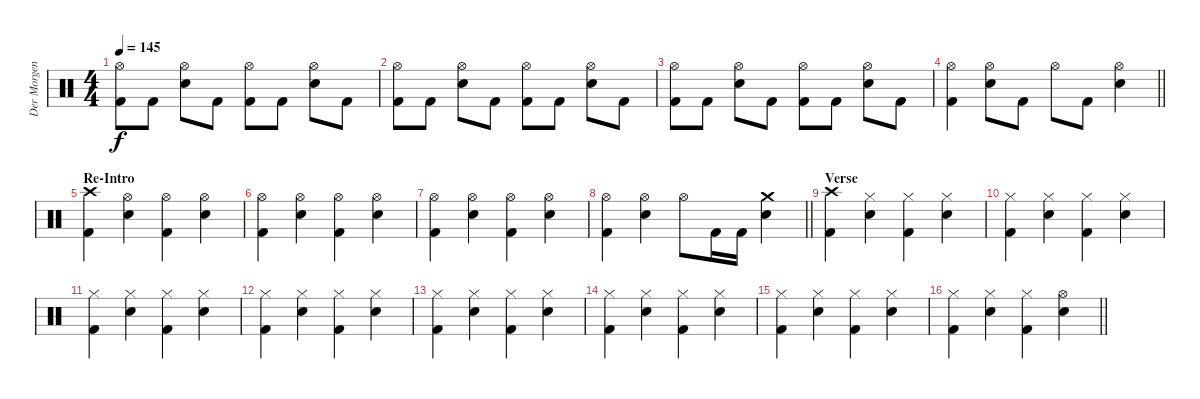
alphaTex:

\track ("Der Morgenstern" "Der Morgen") {instrument percussion}
\staff {score}
\articulation defaults
\ts (4 4)
\tempo 145
\clef neutral
\ks c
("Hi-Hat (open)" "Kick (hit) 2").8{dy f} "Kick (hit) 2".8 ("Hi-Hat (open)" "Electric Snare (hit)").8 "Kick (hit) 2".8 ("Hi-Hat (open)" "Kick (hit) 2").8 "Kick (hit) 2".8 ("Hi-Hat (open)" "Electric Snare (hit)").8 "Kick (hit) 2".8 |
("Hi-Hat (open)" "Kick (hit) 2").8 "Kick (hit) 2".8 ("Hi-Hat (open)" "Electric Snare (hit)").8 "Kick (hit) 2".8 ("Hi-Hat (open)" "Kick (hit) 2").8 "Kick (hit) 2".8 ("Hi-Hat (open)" "Electric Snare (hit)").8 "Kick (hit) 2".8 |
("Hi-Hat (open)" "Kick (hit) 2").8 "Kick (hit) 2".8 ("Hi-Hat (open)" "Electric Snare (hit)").8 "Kick (hit) 2".8 ("Hi-Hat (open)" "Kick (hit) 2").8 "Kick (hit) 2".8 ("Hi-Hat (open)" "Electric Snare (hit)").8 "Kick (hit) 2".8 |
\barLineRight lightlight
("Hi-Hat (open)" "Kick (hit) 2").4 ("Hi-Hat (open)" "Electric Snare (hit)").8 "Kick (hit) 2".8 "Hi-Hat (open)".8 "Kick (hit) 2".8 ("Hi-Hat (open)" "Electric Snare (hit)").4 |
\section ("" "Re-Intro")
("Crash high (hit)" "Kick (hit) 2").4 ("Hi-Hat (open)" "Electric Snare (hit)").4 ("Hi-Hat (open)" "Kick (hit) 2").4 ("Hi-Hat (open)" "Electric Snare (hit)").4 |
("Hi-Hat (open)" "Kick (hit) 2").4 ("Hi-Hat (open)" "Electric Snare (hit)").4 ("Hi-Hat (open)" "Kick (hit) 2").4 ("Hi-Hat (open)" "Electric Snare (hit)").4 |
("Hi-Hat (open)" "Kick (hit) 2").4 ("Hi-Hat (open)" "Electric Snare (hit)").4 ("Hi-Hat (open)" "Kick (hit) 2").4 ("Hi-Hat (open)" "Electric Snare (hit)").4 |
\barLineRight lightlight
("Hi-Hat (open)" "Kick (hit) 2").4 ("Hi-Hat (open)" "Electric Snare (hit)").4 "Hi-Hat (open)".8 "Kick (hit) 2".16 "Kick (hit) 2".16 ("Crash medium (hit)" "Electric Snare (hit)").4 |
\section ("" "Verse")
("Crash high (hit)" "Kick (hit) 2").4 ("Hi-Hat (closed)" "Electric Snare (hit)").4 ("Hi-Hat (closed)" "Kick (hit) 2").4 ("Hi-Hat (closed)" "Electric Snare (hit)").4 |
("Hi-Hat (closed)" "Kick (hit) 2").4 ("Hi-Hat (closed)" "Electric Snare (hit)").4 ("Hi-Hat (closed)" "Kick (hit) 2").4 ("Hi-Hat (closed)" "Electric Snare (hit)").4 |
("Hi-Hat (closed)" "Kick (hit) 2").4 ("Hi-Hat (closed)" "Electric Snare (hit)").4 ("Hi-Hat (closed)" "Kick (hit) 2").4 ("Hi-Hat (closed)" "Electric Snare (hit)").4 |
("Hi-Hat (closed)" "Kick (hit) 2").4 ("Hi-Hat (closed)" "Electric Snare (hit)").4 ("Hi-Hat (closed)" "Kick (hit) 2").4 ("Hi-Hat (closed)" "Electric Snare (hit)").4 |
("Hi-Hat (closed)" "Kick (hit) 2").4 ("Hi-Hat (closed)" "Electric Snare (hit)").4 ("Hi-Hat (closed)" "Kick (hit) 2").4 ("Hi-Hat (closed)" "Electric Snare (hit)").4 |
("Hi-Hat (closed)" "Kick (hit) 2").4 ("Hi-Hat (closed)" "Electric Snare (hit)").4 ("Hi-Hat (closed)" "Kick (hit) 2").4 ("Hi-Hat (closed)" "Electric Snare (hit)").4 |
("Hi-Hat (closed)" "Kick (hit) 2").4 ("Hi-Hat (closed)" "Electric Snare (hit)").4 ("Hi-Hat (closed)" "Kick (hit) 2").4 ("Hi-Hat (closed)" "Electric Snare (hit)").4 |
\barLineRight lightlight
("Hi-Hat (closed)" "Kick (hit) 2").4 ("Hi-Hat (closed)" "Electric Snare (hit)").4 ("Hi-Hat (closed)" "Kick (hit) 2").4 ("Hi-Hat (open)" "Electric Snare (hit)").4
